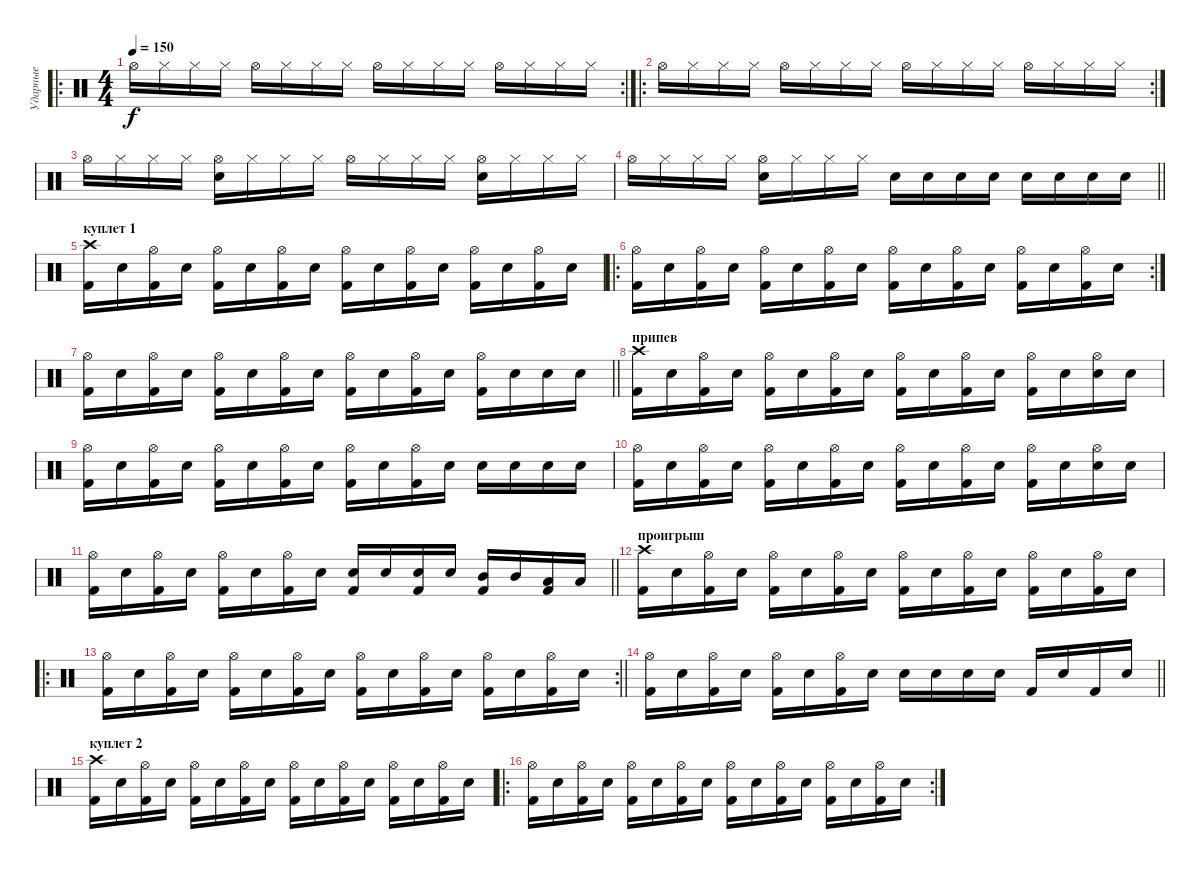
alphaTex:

\track ("Ударные" "Ударные") {instrument percussion}
\staff {score}
\articulation defaults
\ro
\rc 2
\ts (4 4)
\tempo 150
\clef neutral
\ks c "Hi-Hat (open)".16{dy f} "Hi-Hat (closed)".16 "Hi-Hat (closed)".16 "Hi-Hat (closed)".16 "Hi-Hat (open)".16 "Hi-Hat (closed)".16 "Hi-Hat (closed)".16 "Hi-Hat (closed)".16 "Hi-Hat (open)".16 "Hi-Hat (closed)".16 "Hi-Hat (closed)".16 "Hi-Hat (closed)".16 "Hi-Hat (open)".16 "Hi-Hat (closed)".16 "Hi-Hat (closed)".16 "Hi-Hat (closed)".16
|
\ro
\rc 2 "Hi-Hat (open)".16 "Hi-Hat (closed)".16 "Hi-Hat (closed)".16 "Hi-Hat (closed)".16 "Hi-Hat (open)".16 "Hi-Hat (closed)".16 "Hi-Hat (closed)".16 "Hi-Hat (closed)".16 "Hi-Hat (open)".16 "Hi-Hat (closed)".16 "Hi-Hat (closed)".16 "Hi-Hat (closed)".16 "Hi-Hat (open)".16 "Hi-Hat (closed)".16 "Hi-Hat (closed)".16 "Hi-Hat (closed)".16
|
"Hi-Hat (open)".16 "Hi-Hat (closed)".16 "Hi-Hat (closed)".16 "Hi-Hat (closed)".16 ("Hi-Hat (open)" "Electric Snare (hit)").16 "Hi-Hat (closed)".16 "Hi-Hat (closed)".16 "Hi-Hat (closed)".16 "Hi-Hat (open)".16 "Hi-Hat (closed)".16 "Hi-Hat (closed)".16 "Hi-Hat (closed)".16 ("Hi-Hat (open)" "Electric Snare (hit)").16 "Hi-Hat (closed)".16 "Hi-Hat (closed)".16 "Hi-Hat (closed)".16 |
\barLineRight lightlight "Hi-Hat (open)".16 "Hi-Hat (closed)".16 "Hi-Hat (closed)".16 "Hi-Hat (closed)".16
("Hi-Hat (open)" "Electric Snare (hit)").16 "Hi-Hat (closed)".16 "Hi-Hat (closed)".16 "Hi-Hat (closed)".16 "Electric Snare (hit)".16 "Electric Snare (hit)".16 "Electric Snare (hit)".16 "Electric Snare (hit)".16 "Electric Snare (hit)".16 "Electric Snare (hit)".16 "Electric Snare (hit)".16 "Electric Snare (hit)".16 |
\section ("" "куплет 1")
("Crash high (hit)" "Kick (hit) 2").16 "Electric Snare (hit)".16 ("Hi-Hat (open)" "Kick (hit) 2").16 "Electric Snare (hit)".16 ("Hi-Hat (open)" "Kick (hit) 2").16 "Electric Snare (hit)".16 ("Hi-Hat (open)" "Kick (hit) 2").16 "Electric Snare (hit)".16 ("Hi-Hat (open)" "Kick (hit) 2").16 "Electric Snare (hit)".16 ("Hi-Hat (open)" "Kick (hit) 2").16 "Electric Snare (hit)".16 ("Hi-Hat (open)" "Kick (hit) 2").16 "Electric Snare (hit)".16 ("Hi-Hat (open)" "Kick (hit) 2").16 "Electric Snare (hit)".16 |
\ro
\rc 2
("Hi-Hat (open)" "Kick (hit) 2").16 "Electric Snare (hit)".16 ("Hi-Hat (open)" "Kick (hit) 2").16 "Electric Snare (hit)".16 ("Hi-Hat (open)" "Kick (hit) 2").16 "Electric Snare (hit)".16 ("Hi-Hat (open)" "Kick (hit) 2").16 "Electric Snare (hit)".16 ("Hi-Hat (open)" "Kick (hit) 2").16 "Electric Snare (hit)".16 ("Hi-Hat (open)" "Kick (hit) 2").16 "Electric Snare (hit)".16 ("Hi-Hat (open)" "Kick (hit) 2").16 "Electric Snare (hit)".16 ("Hi-Hat (open)" "Kick (hit) 2").16 "Electric Snare (hit)".16 |
\barLineRight lightlight
("Hi-Hat (open)" "Kick (hit) 2").16 "Electric Snare (hit)".16 ("Hi-Hat (open)" "Kick (hit) 2").16 "Electric Snare (hit)".16 ("Hi-Hat (open)" "Kick (hit) 2").16 "Electric Snare (hit)".16 ("Hi-Hat (open)" "Kick (hit) 2").16 "Electric Snare (hit)".16 ("Hi-Hat (open)" "Kick (hit) 2").16 "Electric Snare (hit)".16 ("Hi-Hat (open)" "Kick (hit) 2").16 "Electric Snare (hit)".16 ("Hi-Hat (open)" "Kick (hit) 2").16 "Electric Snare (hit)".16 "Electric Snare (hit)".16 "Electric Snare (hit)".16 |
\section ("" "припев")
("Crash high (hit)" "Kick (hit) 2").16 "Electric Snare (hit)".16 ("Hi-Hat (open)" "Kick (hit) 2").16 "Electric Snare (hit)".16 ("Hi-Hat (open)" "Kick (hit) 2").16 "Electric Snare (hit)".16 ("Hi-Hat (open)" "Kick (hit) 2").16 "Electric Snare (hit)".16 ("Hi-Hat (open)" "Kick (hit) 2").16 "Electric Snare (hit)".16 ("Hi-Hat (open)" "Kick (hit) 2").16 "Electric Snare (hit)".16 ("Hi-Hat (open)" "Kick (hit) 2").16 "Electric Snare (hit)".16 ("Hi-Hat (open)" "Electric Snare (hit)").16 "Electric Snare (hit)".16 |
("Hi-Hat (open)" "Kick (hit) 2").16 "Electric Snare (hit)".16 ("Hi-Hat (open)" "Kick (hit) 2").16 "Electric Snare (hit)".16 ("Hi-Hat (open)" "Kick (hit) 2").16 "Electric Snare (hit)".16 ("Hi-Hat (open)" "Kick (hit) 2").16 "Electric Snare (hit)".16 ("Hi-Hat (open)" "Kick (hit) 2").16 "Electric Snare (hit)".16 ("Hi-Hat (open)" "Kick (hit) 2").16 "Electric Snare (hit)".16 "Electric Snare (hit)".16 "Electric Snare (hit)".16 "Electric Snare (hit)".16 "Electric Snare (hit)".16 |
("Hi-Hat (open)" "Kick (hit) 2").16 "Electric Snare (hit)".16 ("Hi-Hat (open)" "Kick (hit) 2").16 "Electric Snare (hit)".16 ("Hi-Hat (open)" "Kick (hit) 2").16 "Electric Snare (hit)".16 ("Hi-Hat (open)" "Kick (hit) 2").16 "Electric Snare (hit)".16 ("Hi-Hat (open)" "Kick (hit) 2").16 "Electric Snare (hit)".16 ("Hi-Hat (open)" "Kick (hit) 2").16 "Electric Snare (hit)".16 ("Hi-Hat (open)" "Kick (hit) 2").16 "Electric Snare (hit)".16 ("Hi-Hat (open)" "Electric Snare (hit)").16 "Electric Snare (hit)".16 |
\barLineRight lightlight
("Hi-Hat (open)" "Kick (hit) 2").16 "Electric Snare (hit)".16 ("Hi-Hat (open)" "Kick (hit) 2").16 "Electric Snare (hit)".16 ("Hi-Hat (open)" "Kick (hit) 2").16 "Electric Snare (hit)".16 ("Hi-Hat (open)" "Kick (hit) 2").16 "Electric Snare (hit)".16 ("Electric Snare (hit)" "Kick (hit) 2").16 "Electric Snare (hit)".16 ("Electric Snare (hit)" "Kick (hit) 2").16 "Electric Snare (hit)".16 ("Mid Tom (hit)" "Kick (hit) 2").16 "Mid Tom (hit)".16 ("Low Tom (hit)" "Kick (hit) 2").16 "Low Tom (hit)".16 |
\section ("" "проигрыш")
("Crash high (hit)" "Kick (hit) 2").16 "Electric Snare (hit)".16 ("Hi-Hat (open)" "Kick (hit) 2").16 "Electric Snare (hit)".16 ("Hi-Hat (open)" "Kick (hit) 2").16 "Electric Snare (hit)".16 ("Hi-Hat (open)" "Kick (hit) 2").16 "Electric Snare (hit)".16 ("Hi-Hat (open)" "Kick (hit) 2").16 "Electric Snare (hit)".16 ("Hi-Hat (open)" "Kick (hit) 2").16 "Electric Snare (hit)".16 ("Hi-Hat (open)" "Kick (hit) 2").16 "Electric Snare (hit)".16 ("Hi-Hat (open)" "Kick (hit) 2").16 "Electric Snare (hit)".16 |
\ro
\rc 2
\barLineRight lightlight
("Hi-Hat (open)" "Kick (hit) 2").16 "Electric Snare (hit)".16 ("Hi-Hat (open)" "Kick (hit) 2").16 "Electric Snare (hit)".16 ("Hi-Hat (open)" "Kick (hit) 2").16 "Electric Snare (hit)".16 ("Hi-Hat (open)" "Kick (hit) 2").16 "Electric Snare (hit)".16 ("Hi-Hat (open)" "Kick (hit) 2").16 "Electric Snare (hit)".16 ("Hi-Hat (open)" "Kick (hit) 2").16 "Electric Snare (hit)".16 ("Hi-Hat (open)" "Kick (hit) 2").16 "Electric Snare (hit)".16 ("Hi-Hat (open)" "Kick (hit) 2").16 "Electric Snare (hit)".16 |
\barLineRight lightlight
("Hi-Hat (open)" "Kick (hit) 2").16 "Electric Snare (hit)".16 ("Hi-Hat (open)" "Kick (hit) 2").16 "Electric Snare (hit)".16 ("Hi-Hat (open)" "Kick (hit) 2").16 "Electric Snare (hit)".16 ("Hi-Hat (open)" "Kick (hit) 2").16 "Electric Snare (hit)".16 "Electric Snare (hit)".16 "Electric Snare (hit)".16 "Electric Snare (hit)".16 "Electric Snare (hit)".16 "Kick (hit) 2".16 "Electric Snare (hit)".16 "Kick (hit) 2".16 "Electric Snare (hit)".16 |
\section ("" "куплет 2")
("Crash high (hit)" "Kick (hit) 2").16 "Electric Snare (hit)".16 ("Hi-Hat (open)" "Kick (hit) 2").16 "Electric Snare (hit)".16 ("Hi-Hat (open)" "Kick (hit) 2").16 "Electric Snare (hit)".16 ("Hi-Hat (open)" "Kick (hit) 2").16 "Electric Snare (hit)".16 ("Hi-Hat (open)" "Kick (hit) 2").16 "Electric Snare (hit)".16 ("Hi-Hat (open)" "Kick (hit) 2").16 "Electric Snare (hit)".16 ("Hi-Hat (open)" "Kick (hit) 2").16 "Electric Snare (hit)".16 ("Hi-Hat (open)" "Kick (hit) 2").16 "Electric Snare (hit)".16 |
\ro
\rc 2
("Hi-Hat (open)" "Kick (hit) 2").16 "Electric Snare (hit)".16 ("Hi-Hat (open)" "Kick (hit) 2").16 "Electric Snare (hit)".16 ("Hi-Hat (open)" "Kick (hit) 2").16 "Electric Snare (hit)".16 ("Hi-Hat (open)" "Kick (hit) 2").16 "Electric Snare (hit)".16 ("Hi-Hat (open)" "Kick (hit) 2").16 "Electric Snare (hit)".16 ("Hi-Hat (open)" "Kick (hit) 2").16 "Electric Snare (hit)".16 ("Hi-Hat (open)" "Kick (hit) 2").16 "Electric Snare (hit)".16 ("Hi-Hat (open)" "Kick (hit) 2").16 "Electric Snare (hit)".16
